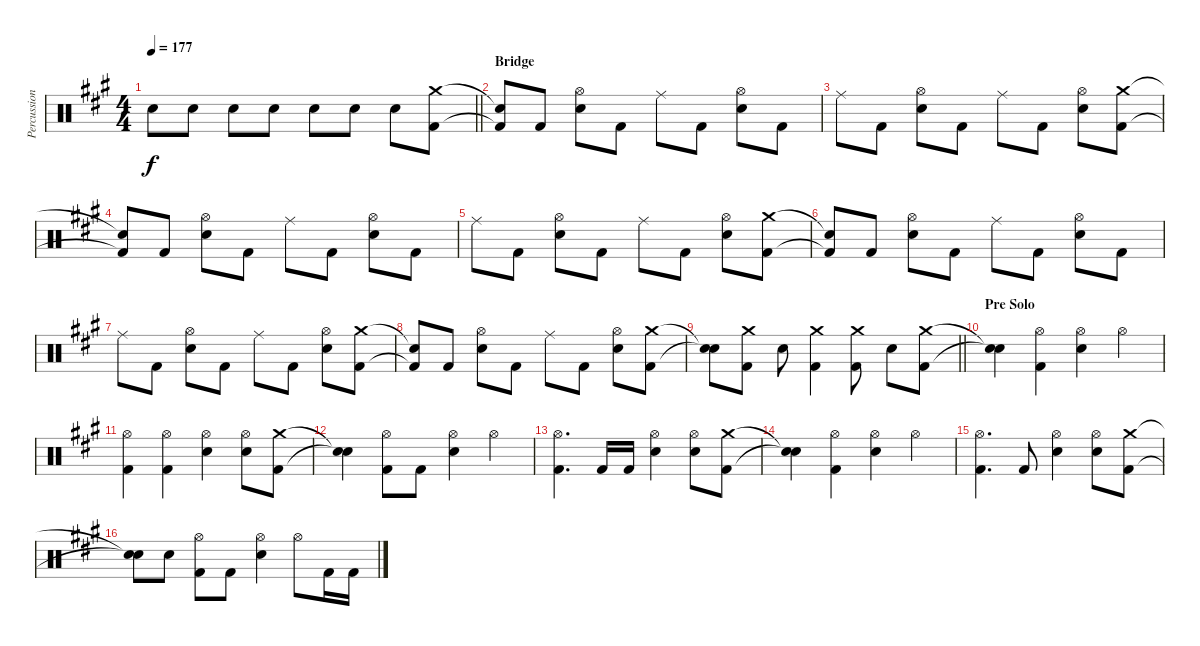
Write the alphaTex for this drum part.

\track ("Percussion" "Percussion") {instrument percussion}
\staff {score}
\articulation defaults
\ts (4 4)
\tempo 177
\clef neutral
\barLineRight lightlight
\ks a "Snare (hit) 2".8{dy f} "Snare (hit) 2".8 "Snare (hit) 2".8 "Snare (hit) 2".8 "Snare (hit) 2".8 "Snare (hit) 2".8 "Snare (hit) 2".8
("Kick (hit) 2" "Crash medium (hit)").8 |
\section ("" "Bridge")
("Kick (hit) 2"{t} "Snare (hit)"{t}).8 "Kick (hit) 2".8 ("Hi-Hat (open)" "Snare (hit) 2").8 "Kick (hit) 2".8 "Ride (middle)".8 "Kick (hit) 2".8 ("Hi-Hat (open)" "Snare (hit) 2").8 "Kick (hit) 2".8 |
"Ride (middle)".8 "Kick (hit) 2".8 ("Hi-Hat (open)" "Snare (hit) 2").8 "Kick (hit) 2".8 "Ride (middle)".8 "Kick (hit) 2".8 ("Hi-Hat (open)" "Snare (hit) 2").8 ("Kick (hit) 2" "Crash medium (hit)").8 |
("Kick (hit) 2"{t} "Snare (hit)"{t}).8 "Kick (hit) 2".8 ("Hi-Hat (open)" "Snare (hit) 2").8 "Kick (hit) 2".8 "Ride (middle)".8 "Kick (hit) 2".8 ("Hi-Hat (open)" "Snare (hit) 2").8 "Kick (hit) 2".8 |
"Ride (middle)".8 "Kick (hit) 2".8 ("Hi-Hat (open)" "Snare (hit) 2").8 "Kick (hit) 2".8 "Ride (middle)".8 "Kick (hit) 2".8 ("Hi-Hat (open)" "Snare (hit) 2").8 ("Kick (hit) 2" "Crash medium (hit)").8 |
("Kick (hit) 2"{t} "Snare (hit)"{t}).8 "Kick (hit) 2".8 ("Hi-Hat (open)" "Snare (hit) 2").8 "Kick (hit) 2".8 "Ride (middle)".8 "Kick (hit) 2".8 ("Hi-Hat (open)" "Snare (hit) 2").8 "Kick (hit) 2".8 |
"Ride (middle)".8 "Kick (hit) 2".8 ("Hi-Hat (open)" "Snare (hit) 2").8 "Kick (hit) 2".8 "Ride (middle)".8 "Kick (hit) 2".8 ("Hi-Hat (open)" "Snare (hit) 2").8 ("Kick (hit) 2" "Crash medium (hit)").8 |
("Kick (hit) 2"{t} "Snare (hit)"{t}).8 "Kick (hit) 2".8 ("Hi-Hat (open)" "Snare (hit) 2").8 "Kick (hit) 2".8 "Ride (middle)".8 "Kick (hit) 2".8 ("Hi-Hat (open)" "Snare (hit) 2").8 ("Kick (hit) 2" "Crash medium (hit)").8 |
\barLineRight lightlight
("Snare (hit)"{t} "Snare (hit)"{t}).8 ("Kick (hit) 2" "Crash medium (hit)").8 "Snare (hit) 2".8 ("Kick (hit) 2" "Crash medium (hit)").4 ("Kick (hit) 2" "Crash medium (hit)").8 "Snare (hit) 2".8 ("Kick (hit) 2" "Crash medium (hit)").8 |
\section ("" "Pre Solo")
("Snare (hit)"{t} "Snare (hit)"{t}).4 ("Hi-Hat (open)" "Kick (hit) 2").4 ("Hi-Hat (open)" "Snare (hit) 2").4 "Hi-Hat (open)".4 |
("Hi-Hat (open)" "Kick (hit) 2").4 ("Hi-Hat (open)" "Kick (hit) 2").4 ("Hi-Hat (open)" "Snare (hit) 2").4 ("Hi-Hat (open)" "Snare (hit) 2").8 ("Kick (hit) 2" "Crash medium (hit)").8 |
("Snare (hit)"{t} "Snare (hit)"{t}).4 ("Hi-Hat (open)" "Kick (hit) 2").8 "Kick (hit) 2".8 ("Hi-Hat (open)" "Snare (hit) 2").4 "Hi-Hat (open)".4 |
("Hi-Hat (open)" "Kick (hit) 2").4{d} "Kick (hit) 2".16 "Kick (hit) 2".16 ("Hi-Hat (open)" "Snare (hit) 2").4 ("Hi-Hat (open)" "Snare (hit) 2").8 ("Kick (hit) 2" "Crash medium (hit)").8 |
("Snare (hit)"{t} "Snare (hit)"{t}).4 ("Hi-Hat (open)" "Kick (hit) 2").4 ("Hi-Hat (open)" "Snare (hit) 2").4 "Hi-Hat (open)".4 |
("Hi-Hat (open)" "Kick (hit) 2").4{d} "Kick (hit) 2".8 ("Hi-Hat (open)" "Snare (hit) 2").4 ("Hi-Hat (open)" "Snare (hit) 2").8 ("Kick (hit) 2" "Crash medium (hit)").8 |
("Snare (hit)"{t} "Snare (hit)"{t}).8 "Snare (hit) 2".8 ("Hi-Hat (open)" "Kick (hit) 2").8 "Kick (hit) 2".8 ("Hi-Hat (open)" "Snare (hit) 2").4 "Hi-Hat (open)".8 "Kick (hit) 2".16 "Kick (hit) 2".16
